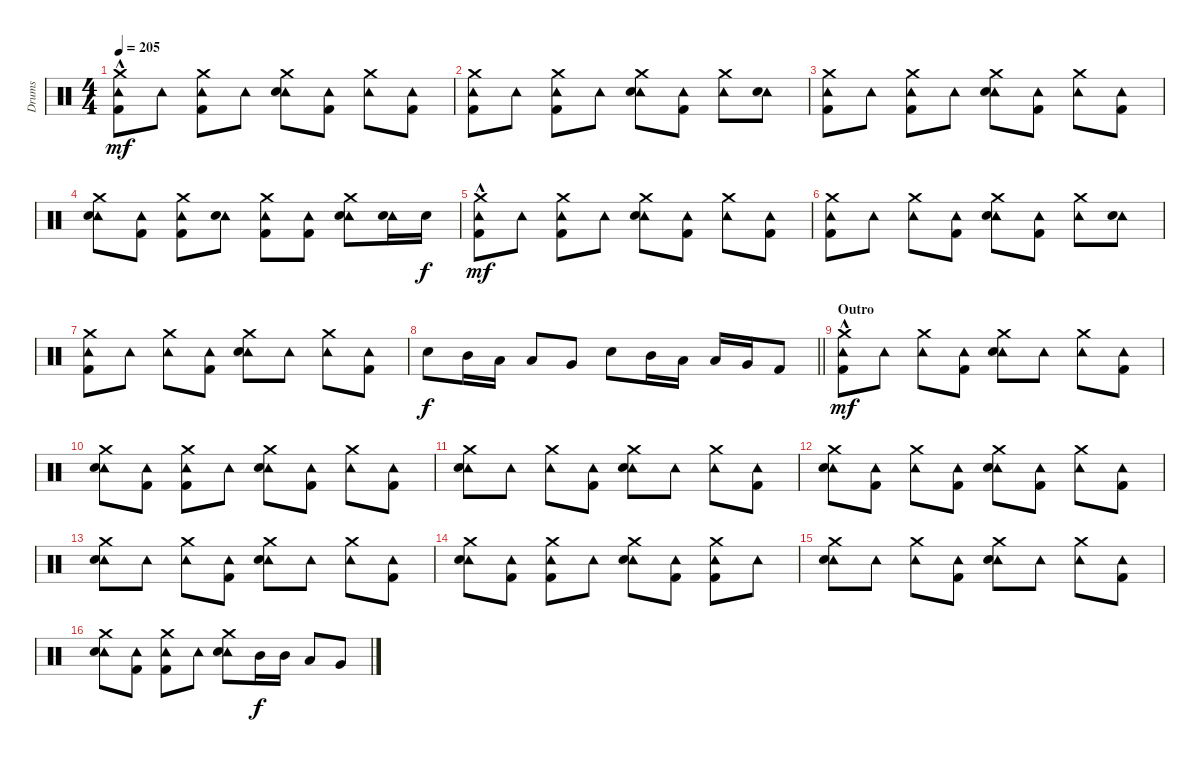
\track ("Drums" "Drums") {instrument percussion}
\staff {score}
\articulation defaults
\ts (4 4)
\tempo 205
\clef neutral
\ks c
("Crash medium (hit)"{hac} "Tambourine (hit)" "Kick (hit) 2").8{dy mf} "Tambourine (hit)".8 ("Crash medium (hit)" "Tambourine (hit)" "Kick (hit) 2").8 "Tambourine (hit)".8 ("Crash medium (hit)" "Tambourine (hit)" "Electric Snare (hit)").8 ("Tambourine (hit)" "Kick (hit) 2").8 ("Crash medium (hit)" "Tambourine (hit)").8 ("Tambourine (hit)" "Kick (hit) 2").8 |
("Crash medium (hit)" "Tambourine (hit)" "Kick (hit) 2").8 "Tambourine (hit)".8 ("Crash medium (hit)" "Tambourine (hit)" "Kick (hit) 2").8 "Tambourine (hit)".8 ("Crash medium (hit)" "Tambourine (hit)" "Electric Snare (hit)").8 ("Tambourine (hit)" "Kick (hit) 2").8 ("Crash medium (hit)" "Tambourine (hit)").8 ("Tambourine (hit)" "Electric Snare (hit)").8 |
("Crash medium (hit)" "Tambourine (hit)" "Kick (hit) 2").8 "Tambourine (hit)".8 ("Crash medium (hit)" "Tambourine (hit)" "Kick (hit) 2").8 "Tambourine (hit)".8 ("Crash medium (hit)" "Tambourine (hit)" "Electric Snare (hit)").8 ("Tambourine (hit)" "Kick (hit) 2").8 ("Crash medium (hit)" "Tambourine (hit)").8 ("Tambourine (hit)" "Kick (hit) 2").8 |
("Crash medium (hit)" "Tambourine (hit)" "Electric Snare (hit)").8 ("Tambourine (hit)" "Kick (hit) 2").8 ("Crash medium (hit)" "Tambourine (hit)" "Kick (hit) 2").8 ("Tambourine (hit)" "Electric Snare (hit)").8 ("Crash medium (hit)" "Tambourine (hit)" "Kick (hit) 2").8 ("Tambourine (hit)" "Kick (hit) 2").8 ("Crash medium (hit)" "Tambourine (hit)" "Electric Snare (hit)").8 ("Tambourine (hit)" "Electric Snare (hit)").16 "Electric Snare (hit)".16{dy f} |
("Crash medium (hit)"{hac} "Tambourine (hit)" "Kick (hit) 2").8{dy mf} "Tambourine (hit)".8 ("Crash medium (hit)" "Tambourine (hit)" "Kick (hit) 2").8 "Tambourine (hit)".8 ("Crash medium (hit)" "Tambourine (hit)" "Electric Snare (hit)").8 ("Tambourine (hit)" "Kick (hit) 2").8 ("Crash medium (hit)" "Tambourine (hit)").8 ("Tambourine (hit)" "Kick (hit) 2").8 |
("Crash medium (hit)" "Tambourine (hit)" "Kick (hit) 2").8 "Tambourine (hit)".8 ("Crash medium (hit)" "Tambourine (hit)").8 ("Tambourine (hit)" "Kick (hit) 2").8 ("Crash medium (hit)" "Tambourine (hit)" "Electric Snare (hit)").8 ("Tambourine (hit)" "Kick (hit) 2").8 ("Crash medium (hit)" "Tambourine (hit)").8 ("Tambourine (hit)" "Electric Snare (hit)").8 |
("Crash medium (hit)" "Tambourine (hit)" "Kick (hit) 2").8 "Tambourine (hit)".8 ("Crash medium (hit)" "Tambourine (hit)").8 ("Tambourine (hit)" "Kick (hit) 2").8 ("Crash medium (hit)" "Tambourine (hit)" "Electric Snare (hit)").8 "Tambourine (hit)".8 ("Crash medium (hit)" "Tambourine (hit)").8 ("Tambourine (hit)" "Kick (hit) 2").8 |
\barLineRight lightlight "Electric Snare (hit)".8{dy f} "Mid Tom (hit)".16 "Low Tom (hit)".16 "Low Tom (hit)".8 "Very Low Tom (hit)".8 "Electric Snare (hit)".8 "Mid Tom (hit)".16 "Low Tom (hit)".16 "Low Tom (hit)".16 "Very Low Tom (hit)".16 "Kick (hit) 2".8
|
\section ("" "Outro")
("Crash medium (hit)"{hac} "Tambourine (hit)" "Kick (hit) 2").8{dy mf} "Tambourine (hit)".8 ("Crash medium (hit)" "Tambourine (hit)").8 ("Tambourine (hit)" "Kick (hit) 2").8 ("Crash medium (hit)" "Tambourine (hit)" "Electric Snare (hit)").8 "Tambourine (hit)".8 ("Crash medium (hit)" "Tambourine (hit)").8 ("Tambourine (hit)" "Kick (hit) 2").8 |
("Crash medium (hit)" "Tambourine (hit)" "Electric Snare (hit)").8 ("Tambourine (hit)" "Kick (hit) 2").8 ("Crash medium (hit)" "Tambourine (hit)" "Kick (hit) 2").8 "Tambourine (hit)".8 ("Crash medium (hit)" "Tambourine (hit)" "Electric Snare (hit)").8 ("Tambourine (hit)" "Kick (hit) 2").8 ("Crash medium (hit)" "Tambourine (hit)").8 ("Tambourine (hit)" "Kick (hit) 2").8 |
("Crash medium (hit)" "Tambourine (hit)" "Electric Snare (hit)").8 "Tambourine (hit)".8 ("Crash medium (hit)" "Tambourine (hit)").8 ("Tambourine (hit)" "Kick (hit) 2").8 ("Crash medium (hit)" "Tambourine (hit)" "Electric Snare (hit)").8 "Tambourine (hit)".8 ("Crash medium (hit)" "Tambourine (hit)").8 ("Tambourine (hit)" "Kick (hit) 2").8 |
("Crash medium (hit)" "Tambourine (hit)" "Electric Snare (hit)").8 ("Tambourine (hit)" "Kick (hit) 2").8 ("Crash medium (hit)" "Tambourine (hit)").8 ("Tambourine (hit)" "Kick (hit) 2").8 ("Crash medium (hit)" "Tambourine (hit)" "Electric Snare (hit)").8 ("Tambourine (hit)" "Kick (hit) 2").8 ("Crash medium (hit)" "Tambourine (hit)").8 ("Tambourine (hit)" "Kick (hit) 2").8 |
("Crash medium (hit)" "Tambourine (hit)" "Electric Snare (hit)").8 "Tambourine (hit)".8 ("Crash medium (hit)" "Tambourine (hit)").8 ("Tambourine (hit)" "Kick (hit) 2").8 ("Crash medium (hit)" "Tambourine (hit)" "Electric Snare (hit)").8 "Tambourine (hit)".8 ("Crash medium (hit)" "Tambourine (hit)").8 ("Tambourine (hit)" "Kick (hit) 2").8 |
("Crash medium (hit)" "Tambourine (hit)" "Electric Snare (hit)").8 ("Tambourine (hit)" "Kick (hit) 2").8 ("Crash medium (hit)" "Tambourine (hit)" "Kick (hit) 2").8 "Tambourine (hit)".8 ("Crash medium (hit)" "Tambourine (hit)" "Electric Snare (hit)").8 ("Tambourine (hit)" "Kick (hit) 2").8 ("Crash medium (hit)" "Tambourine (hit)" "Kick (hit) 2").8 "Tambourine (hit)".8 |
("Crash medium (hit)" "Tambourine (hit)" "Electric Snare (hit)").8 "Tambourine (hit)".8 ("Crash medium (hit)" "Tambourine (hit)").8 ("Tambourine (hit)" "Kick (hit) 2").8 ("Crash medium (hit)" "Tambourine (hit)" "Electric Snare (hit)").8 "Tambourine (hit)".8 ("Crash medium (hit)" "Tambourine (hit)").8 ("Tambourine (hit)" "Kick (hit) 2").8 |
("Crash medium (hit)" "Tambourine (hit)" "Electric Snare (hit)").8 ("Tambourine (hit)" "Kick (hit) 2").8 ("Crash medium (hit)" "Tambourine (hit)" "Kick (hit) 2").8 "Tambourine (hit)".8 ("Crash medium (hit)" "Tambourine (hit)" "Electric Snare (hit)").8 "Mid Tom (hit)".16{dy f} "Mid Tom (hit)".16 "Low Tom (hit)".8 "Very Low Tom (hit)".8
